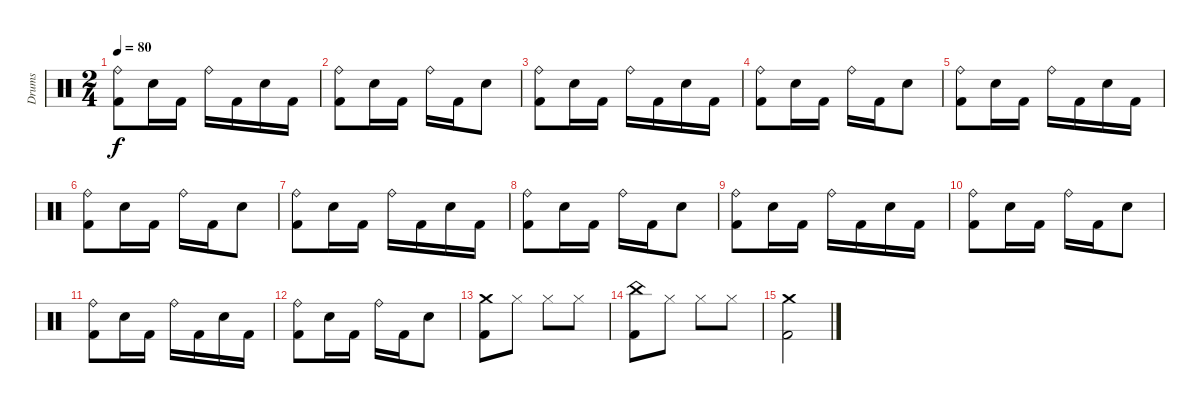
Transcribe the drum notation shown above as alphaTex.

\track ("Drums" "Drums") {instrument percussion}
\staff {score}
\articulation defaults
\ts (2 4)
\tempo 80
\clef neutral
\ks aminor
("Kick (hit) 2" "Ride (bell)").8{dy f} "Electric Snare (hit)".16 "Kick (hit) 2".16 "Ride (bell)".16 "Kick (hit) 2".16 "Electric Snare (hit)".16 "Kick (hit) 2".16 |
("Kick (hit) 2" "Ride (bell)").8 "Electric Snare (hit)".16 "Kick (hit) 2".16 "Ride (bell)".16 "Kick (hit) 2".16 "Electric Snare (hit)".8 |
("Kick (hit) 2" "Ride (bell)").8 "Electric Snare (hit)".16 "Kick (hit) 2".16 "Ride (bell)".16 "Kick (hit) 2".16 "Electric Snare (hit)".16 "Kick (hit) 2".16 |
("Kick (hit) 2" "Ride (bell)").8 "Electric Snare (hit)".16 "Kick (hit) 2".16 "Ride (bell)".16 "Kick (hit) 2".16 "Electric Snare (hit)".8 |
("Kick (hit) 2" "Ride (bell)").8 "Electric Snare (hit)".16 "Kick (hit) 2".16 "Ride (bell)".16 "Kick (hit) 2".16 "Electric Snare (hit)".16 "Kick (hit) 2".16 |
("Kick (hit) 2" "Ride (bell)").8 "Electric Snare (hit)".16 "Kick (hit) 2".16 "Ride (bell)".16 "Kick (hit) 2".16 "Electric Snare (hit)".8 |
("Kick (hit) 2" "Ride (bell)").8 "Electric Snare (hit)".16 "Kick (hit) 2".16 "Ride (bell)".16 "Kick (hit) 2".16 "Electric Snare (hit)".16 "Kick (hit) 2".16 |
("Kick (hit) 2" "Ride (bell)").8 "Electric Snare (hit)".16 "Kick (hit) 2".16 "Ride (bell)".16 "Kick (hit) 2".16 "Electric Snare (hit)".8 |
("Kick (hit) 2" "Ride (bell)").8 "Electric Snare (hit)".16 "Kick (hit) 2".16 "Ride (bell)".16 "Kick (hit) 2".16 "Electric Snare (hit)".16 "Kick (hit) 2".16 |
("Kick (hit) 2" "Ride (bell)").8 "Electric Snare (hit)".16 "Kick (hit) 2".16 "Ride (bell)".16 "Kick (hit) 2".16 "Electric Snare (hit)".8 |
("Kick (hit) 2" "Ride (bell)").8 "Electric Snare (hit)".16 "Kick (hit) 2".16 "Ride (bell)".16 "Kick (hit) 2".16 "Electric Snare (hit)".16 "Kick (hit) 2".16 |
("Kick (hit) 2" "Ride (bell)").8 "Electric Snare (hit)".16 "Kick (hit) 2".16 "Ride (bell)".16 "Kick (hit) 2".16 "Electric Snare (hit)".8 |
("Crash medium (hit)" "Kick (hit) 2").8 "Hi-Hat (closed)".8 "Hi-Hat (closed)".8 "Hi-Hat (closed)".8 |
("China (hit)" "Kick (hit) 2").8 "Hi-Hat (closed)".8 "Hi-Hat (closed)".8 "Hi-Hat (closed)".8 |
("Crash medium (hit)" "Kick (hit) 2").2
